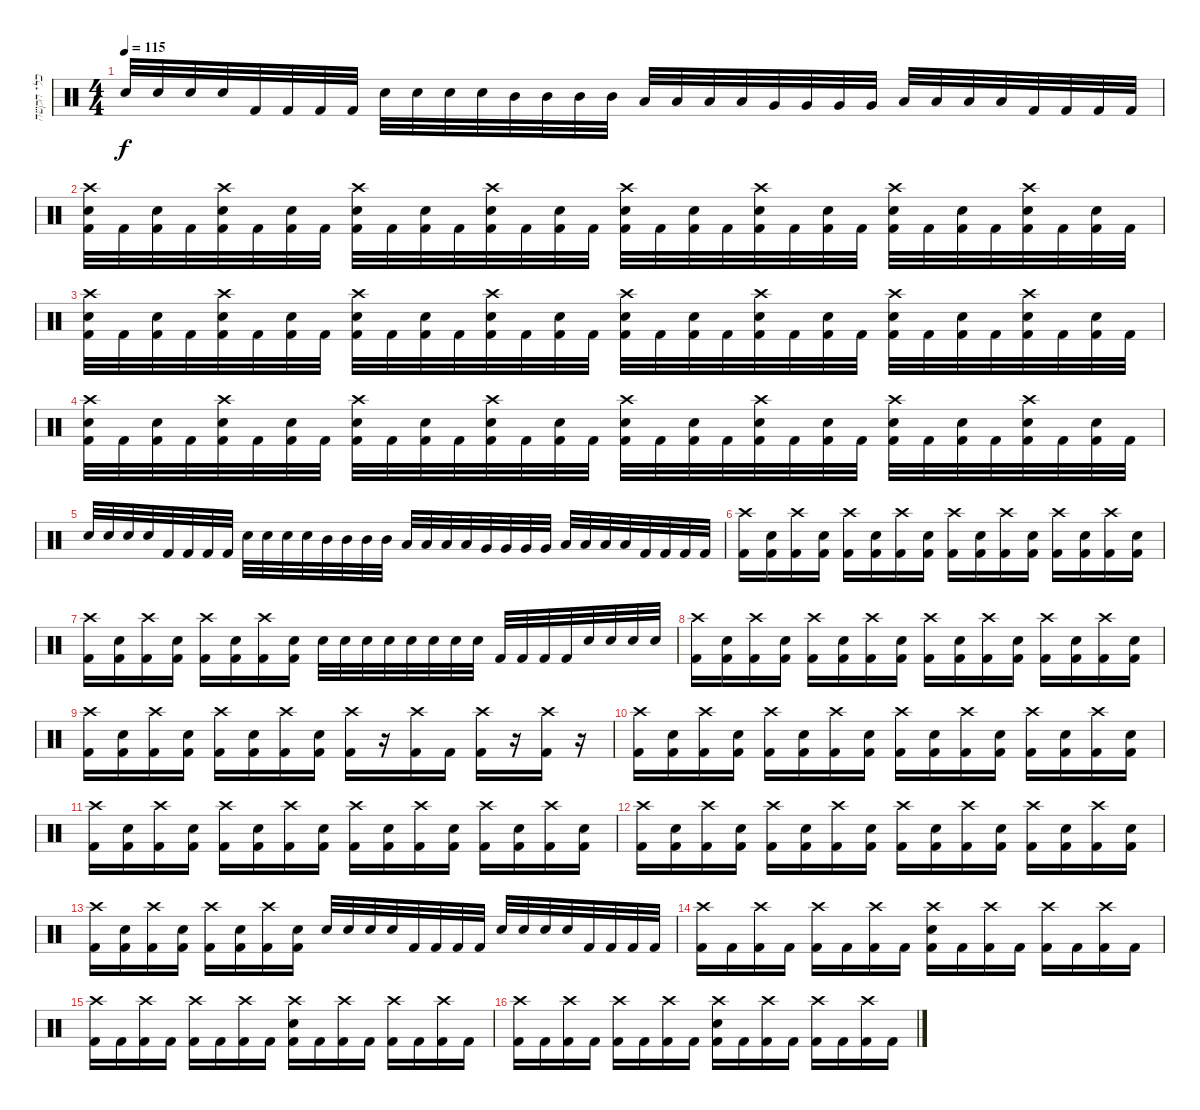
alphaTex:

\track ("כלי הקשה" "כלי הקשה") {instrument percussion}
\staff {score}
\articulation defaults
\ts (4 4)
\tempo 115
\clef neutral
\ks c "Snare (hit) 2".32{dy f} "Snare (hit) 2".32 "Snare (hit) 2".32 "Snare (hit) 2".32 "Kick (hit) 2".32 "Kick (hit) 2".32 "Kick (hit) 2".32 "Kick (hit) 2".32 "Snare (hit) 2".32 "Snare (hit) 2".32 "Snare (hit) 2".32 "Snare (hit) 2".32 "Mid Tom (hit)".32 "Mid Tom (hit)".32 "Mid Tom (hit)".32 "Mid Tom (hit)".32 "Low Tom (hit)".32 "Low Tom (hit)".32 "Low Tom (hit)".32 "Low Tom (hit)".32 "Very Low Tom (hit)".32 "Very Low Tom (hit)".32 "Very Low Tom (hit)".32 "Very Low Tom (hit)".32 "Low Floor Tom (hit)".32 "Low Floor Tom (hit)".32 "Low Floor Tom (hit)".32 "Low Floor Tom (hit)".32 "Kick (hit) 2".32 "Kick (hit) 2".32 "Kick (hit) 2".32 "Kick (hit) 2".32
|
("Crash high (hit)" "Snare (hit) 2" "Kick (hit) 2").32 "Kick (hit) 2".32 ("Snare (hit) 2" "Kick (hit) 2").32 "Kick (hit) 2".32 ("Crash high (hit)" "Snare (hit) 2" "Kick (hit) 2").32 "Kick (hit) 2".32 ("Snare (hit) 2" "Kick (hit) 2").32 "Kick (hit) 2".32 ("Crash high (hit)" "Snare (hit) 2" "Kick (hit) 2").32 "Kick (hit) 2".32 ("Snare (hit) 2" "Kick (hit) 2").32 "Kick (hit) 2".32 ("Crash high (hit)" "Snare (hit) 2" "Kick (hit) 2").32 "Kick (hit) 2".32 ("Snare (hit) 2" "Kick (hit) 2").32 "Kick (hit) 2".32 ("Crash high (hit)" "Snare (hit) 2" "Kick (hit) 2").32 "Kick (hit) 2".32 ("Snare (hit) 2" "Kick (hit) 2").32 "Kick (hit) 2".32 ("Crash high (hit)" "Snare (hit) 2" "Kick (hit) 2").32 "Kick (hit) 2".32 ("Snare (hit) 2" "Kick (hit) 2").32 "Kick (hit) 2".32 ("Crash high (hit)" "Snare (hit) 2" "Kick (hit) 2").32 "Kick (hit) 2".32 ("Snare (hit) 2" "Kick (hit) 2").32 "Kick (hit) 2".32 ("Crash high (hit)" "Snare (hit) 2" "Kick (hit) 2").32 "Kick (hit) 2".32 ("Snare (hit) 2" "Kick (hit) 2").32 "Kick (hit) 2".32 |
("Crash high (hit)" "Snare (hit) 2" "Kick (hit) 2").32 "Kick (hit) 2".32 ("Snare (hit) 2" "Kick (hit) 2").32 "Kick (hit) 2".32 ("Crash high (hit)" "Snare (hit) 2" "Kick (hit) 2").32 "Kick (hit) 2".32 ("Snare (hit) 2" "Kick (hit) 2").32 "Kick (hit) 2".32 ("Crash high (hit)" "Snare (hit) 2" "Kick (hit) 2").32 "Kick (hit) 2".32 ("Snare (hit) 2" "Kick (hit) 2").32 "Kick (hit) 2".32 ("Crash high (hit)" "Snare (hit) 2" "Kick (hit) 2").32 "Kick (hit) 2".32 ("Snare (hit) 2" "Kick (hit) 2").32 "Kick (hit) 2".32 ("Crash high (hit)" "Snare (hit) 2" "Kick (hit) 2").32 "Kick (hit) 2".32 ("Snare (hit) 2" "Kick (hit) 2").32 "Kick (hit) 2".32 ("Crash high (hit)" "Snare (hit) 2" "Kick (hit) 2").32 "Kick (hit) 2".32 ("Snare (hit) 2" "Kick (hit) 2").32 "Kick (hit) 2".32 ("Crash high (hit)" "Snare (hit) 2" "Kick (hit) 2").32 "Kick (hit) 2".32 ("Snare (hit) 2" "Kick (hit) 2").32 "Kick (hit) 2".32 ("Crash high (hit)" "Snare (hit) 2" "Kick (hit) 2").32 "Kick (hit) 2".32 ("Snare (hit) 2" "Kick (hit) 2").32 "Kick (hit) 2".32 |
("Crash high (hit)" "Snare (hit) 2" "Kick (hit) 2").32 "Kick (hit) 2".32 ("Snare (hit) 2" "Kick (hit) 2").32 "Kick (hit) 2".32 ("Crash high (hit)" "Snare (hit) 2" "Kick (hit) 2").32 "Kick (hit) 2".32 ("Snare (hit) 2" "Kick (hit) 2").32 "Kick (hit) 2".32 ("Crash high (hit)" "Snare (hit) 2" "Kick (hit) 2").32 "Kick (hit) 2".32 ("Snare (hit) 2" "Kick (hit) 2").32 "Kick (hit) 2".32 ("Crash high (hit)" "Snare (hit) 2" "Kick (hit) 2").32 "Kick (hit) 2".32 ("Snare (hit) 2" "Kick (hit) 2").32 "Kick (hit) 2".32 ("Crash high (hit)" "Snare (hit) 2" "Kick (hit) 2").32 "Kick (hit) 2".32 ("Snare (hit) 2" "Kick (hit) 2").32 "Kick (hit) 2".32 ("Crash high (hit)" "Snare (hit) 2" "Kick (hit) 2").32 "Kick (hit) 2".32 ("Snare (hit) 2" "Kick (hit) 2").32 "Kick (hit) 2".32 ("Crash high (hit)" "Snare (hit) 2" "Kick (hit) 2").32 "Kick (hit) 2".32 ("Snare (hit) 2" "Kick (hit) 2").32 "Kick (hit) 2".32 ("Crash high (hit)" "Snare (hit) 2" "Kick (hit) 2").32 "Kick (hit) 2".32 ("Snare (hit) 2" "Kick (hit) 2").32 "Kick (hit) 2".32 |
"Snare (hit) 2".32 "Snare (hit) 2".32 "Snare (hit) 2".32 "Snare (hit) 2".32 "Kick (hit) 2".32 "Kick (hit) 2".32 "Kick (hit) 2".32 "Kick (hit) 2".32 "Snare (hit) 2".32 "Snare (hit) 2".32 "Snare (hit) 2".32 "Snare (hit) 2".32 "Mid Tom (hit)".32 "Mid Tom (hit)".32 "Mid Tom (hit)".32 "Mid Tom (hit)".32 "Low Tom (hit)".32 "Low Tom (hit)".32 "Low Tom (hit)".32 "Low Tom (hit)".32 "Very Low Tom (hit)".32 "Very Low Tom (hit)".32 "Very Low Tom (hit)".32 "Very Low Tom (hit)".32 "Low Floor Tom (hit)".32 "Low Floor Tom (hit)".32 "Low Floor Tom (hit)".32 "Low Floor Tom (hit)".32 "Kick (hit) 2".32 "Kick (hit) 2".32 "Kick (hit) 2".32 "Kick (hit) 2".32 |
("Crash high (hit)" "Kick (hit) 2").16 ("Snare (hit) 2" "Kick (hit) 2").16 ("Crash high (hit)" "Kick (hit) 2").16 ("Snare (hit) 2" "Kick (hit) 2").16 ("Crash high (hit)" "Kick (hit) 2").16 ("Snare (hit) 2" "Kick (hit) 2").16 ("Crash high (hit)" "Kick (hit) 2").16 ("Snare (hit) 2" "Kick (hit) 2").16 ("Crash high (hit)" "Kick (hit) 2").16 ("Snare (hit) 2" "Kick (hit) 2").16 ("Crash high (hit)" "Kick (hit) 2").16 ("Snare (hit) 2" "Kick (hit) 2").16 ("Crash high (hit)" "Kick (hit) 2").16 ("Snare (hit) 2" "Kick (hit) 2").16 ("Crash high (hit)" "Kick (hit) 2").16 ("Snare (hit) 2" "Kick (hit) 2").16 |
("Crash high (hit)" "Kick (hit) 2").16 ("Snare (hit) 2" "Kick (hit) 2").16 ("Crash high (hit)" "Kick (hit) 2").16 ("Snare (hit) 2" "Kick (hit) 2").16 ("Crash high (hit)" "Kick (hit) 2").16 ("Snare (hit) 2" "Kick (hit) 2").16 ("Crash high (hit)" "Kick (hit) 2").16 ("Snare (hit) 2" "Kick (hit) 2").16 "Snare (hit) 2".32 "Snare (hit) 2".32 "Snare (hit) 2".32 "Snare (hit) 2".32 "Snare (hit) 2".32 "Snare (hit) 2".32 "Snare (hit) 2".32 "Snare (hit) 2".32 "Kick (hit) 2".32 "Kick (hit) 2".32 "Kick (hit) 2".32 "Kick (hit) 2".32 "Snare (hit) 2".32 "Snare (hit) 2".32 "Snare (hit) 2".32 "Snare (hit) 2".32 |
("Crash high (hit)" "Kick (hit) 2").16 ("Snare (hit) 2" "Kick (hit) 2").16 ("Crash high (hit)" "Kick (hit) 2").16 ("Snare (hit) 2" "Kick (hit) 2").16 ("Crash high (hit)" "Kick (hit) 2").16 ("Snare (hit) 2" "Kick (hit) 2").16 ("Crash high (hit)" "Kick (hit) 2").16 ("Snare (hit) 2" "Kick (hit) 2").16 ("Crash high (hit)" "Kick (hit) 2").16 ("Snare (hit) 2" "Kick (hit) 2").16 ("Crash high (hit)" "Kick (hit) 2").16 ("Snare (hit) 2" "Kick (hit) 2").16 ("Crash high (hit)" "Kick (hit) 2").16 ("Snare (hit) 2" "Kick (hit) 2").16 ("Crash high (hit)" "Kick (hit) 2").16 ("Snare (hit) 2" "Kick (hit) 2").16 |
("Crash high (hit)" "Kick (hit) 2").16 ("Snare (hit) 2" "Kick (hit) 2").16 ("Crash high (hit)" "Kick (hit) 2").16 ("Snare (hit) 2" "Kick (hit) 2").16 ("Crash high (hit)" "Kick (hit) 2").16 ("Snare (hit) 2" "Kick (hit) 2").16 ("Crash high (hit)" "Kick (hit) 2").16 ("Snare (hit) 2" "Kick (hit) 2").16 ("Crash high (hit)" "Kick (hit) 2").16 r.16 ("Crash high (hit)" "Kick (hit) 2").16 "Kick (hit) 2".16 ("Crash high (hit)" "Kick (hit) 2").16 r.16 ("Crash high (hit)" "Kick (hit) 2").16 r.16 |
("Crash high (hit)" "Kick (hit) 2").16 ("Snare (hit) 2" "Kick (hit) 2").16 ("Crash high (hit)" "Kick (hit) 2").16 ("Snare (hit) 2" "Kick (hit) 2").16 ("Crash high (hit)" "Kick (hit) 2").16 ("Snare (hit) 2" "Kick (hit) 2").16 ("Crash high (hit)" "Kick (hit) 2").16 ("Snare (hit) 2" "Kick (hit) 2").16 ("Crash high (hit)" "Kick (hit) 2").16 ("Snare (hit) 2" "Kick (hit) 2").16 ("Crash high (hit)" "Kick (hit) 2").16 ("Snare (hit) 2" "Kick (hit) 2").16 ("Crash high (hit)" "Kick (hit) 2").16 ("Snare (hit) 2" "Kick (hit) 2").16 ("Crash high (hit)" "Kick (hit) 2").16 ("Snare (hit) 2" "Kick (hit) 2").16 |
("Crash high (hit)" "Kick (hit) 2").16 ("Snare (hit) 2" "Kick (hit) 2").16 ("Crash high (hit)" "Kick (hit) 2").16 ("Snare (hit) 2" "Kick (hit) 2").16 ("Crash high (hit)" "Kick (hit) 2").16 ("Snare (hit) 2" "Kick (hit) 2").16 ("Crash high (hit)" "Kick (hit) 2").16 ("Snare (hit) 2" "Kick (hit) 2").16 ("Crash high (hit)" "Kick (hit) 2").16 ("Snare (hit) 2" "Kick (hit) 2").16 ("Crash high (hit)" "Kick (hit) 2").16 ("Snare (hit) 2" "Kick (hit) 2").16 ("Crash high (hit)" "Kick (hit) 2").16 ("Snare (hit) 2" "Kick (hit) 2").16 ("Crash high (hit)" "Kick (hit) 2").16 ("Snare (hit) 2" "Kick (hit) 2").16 |
("Crash high (hit)" "Kick (hit) 2").16 ("Snare (hit) 2" "Kick (hit) 2").16 ("Crash high (hit)" "Kick (hit) 2").16 ("Snare (hit) 2" "Kick (hit) 2").16 ("Crash high (hit)" "Kick (hit) 2").16 ("Snare (hit) 2" "Kick (hit) 2").16 ("Crash high (hit)" "Kick (hit) 2").16 ("Snare (hit) 2" "Kick (hit) 2").16 ("Crash high (hit)" "Kick (hit) 2").16 ("Snare (hit) 2" "Kick (hit) 2").16 ("Crash high (hit)" "Kick (hit) 2").16 ("Snare (hit) 2" "Kick (hit) 2").16 ("Crash high (hit)" "Kick (hit) 2").16 ("Snare (hit) 2" "Kick (hit) 2").16 ("Crash high (hit)" "Kick (hit) 2").16 ("Snare (hit) 2" "Kick (hit) 2").16 |
("Crash high (hit)" "Kick (hit) 2").16 ("Snare (hit) 2" "Kick (hit) 2").16 ("Crash high (hit)" "Kick (hit) 2").16 ("Snare (hit) 2" "Kick (hit) 2").16 ("Crash high (hit)" "Kick (hit) 2").16 ("Snare (hit) 2" "Kick (hit) 2").16 ("Crash high (hit)" "Kick (hit) 2").16 ("Snare (hit) 2" "Kick (hit) 2").16 "Snare (hit) 2".32 "Snare (hit) 2".32 "Snare (hit) 2".32 "Snare (hit) 2".32 "Kick (hit) 2".32 "Kick (hit) 2".32 "Kick (hit) 2".32 "Kick (hit) 2".32 "Snare (hit) 2".32 "Snare (hit) 2".32 "Snare (hit) 2".32 "Snare (hit) 2".32 "Kick (hit) 2".32 "Kick (hit) 2".32 "Kick (hit) 2".32 "Kick (hit) 2".32 |
("Crash high (hit)" "Kick (hit) 2").16 "Kick (hit) 2".16 ("Crash high (hit)" "Kick (hit) 2").16 "Kick (hit) 2".16 ("Crash high (hit)" "Kick (hit) 2").16 "Kick (hit) 2".16 ("Crash high (hit)" "Kick (hit) 2").16 "Kick (hit) 2".16 ("Crash high (hit)" "Snare (hit) 2" "Kick (hit) 2").16 "Kick (hit) 2".16 ("Crash high (hit)" "Kick (hit) 2").16 "Kick (hit) 2".16 ("Crash high (hit)" "Kick (hit) 2").16 "Kick (hit) 2".16 ("Crash high (hit)" "Kick (hit) 2").16 "Kick (hit) 2".16 |
("Crash high (hit)" "Kick (hit) 2").16 "Kick (hit) 2".16 ("Crash high (hit)" "Kick (hit) 2").16 "Kick (hit) 2".16 ("Crash high (hit)" "Kick (hit) 2").16 "Kick (hit) 2".16 ("Crash high (hit)" "Kick (hit) 2").16 "Kick (hit) 2".16 ("Crash high (hit)" "Snare (hit) 2" "Kick (hit) 2").16 "Kick (hit) 2".16 ("Crash high (hit)" "Kick (hit) 2").16 "Kick (hit) 2".16 ("Crash high (hit)" "Kick (hit) 2").16 "Kick (hit) 2".16 ("Crash high (hit)" "Kick (hit) 2").16 "Kick (hit) 2".16 |
("Crash high (hit)" "Kick (hit) 2").16 "Kick (hit) 2".16 ("Crash high (hit)" "Kick (hit) 2").16 "Kick (hit) 2".16 ("Crash high (hit)" "Kick (hit) 2").16 "Kick (hit) 2".16 ("Crash high (hit)" "Kick (hit) 2").16 "Kick (hit) 2".16 ("Crash high (hit)" "Snare (hit) 2" "Kick (hit) 2").16 "Kick (hit) 2".16 ("Crash high (hit)" "Kick (hit) 2").16 "Kick (hit) 2".16 ("Crash high (hit)" "Kick (hit) 2").16 "Kick (hit) 2".16 ("Crash high (hit)" "Kick (hit) 2").16 "Kick (hit) 2".16
